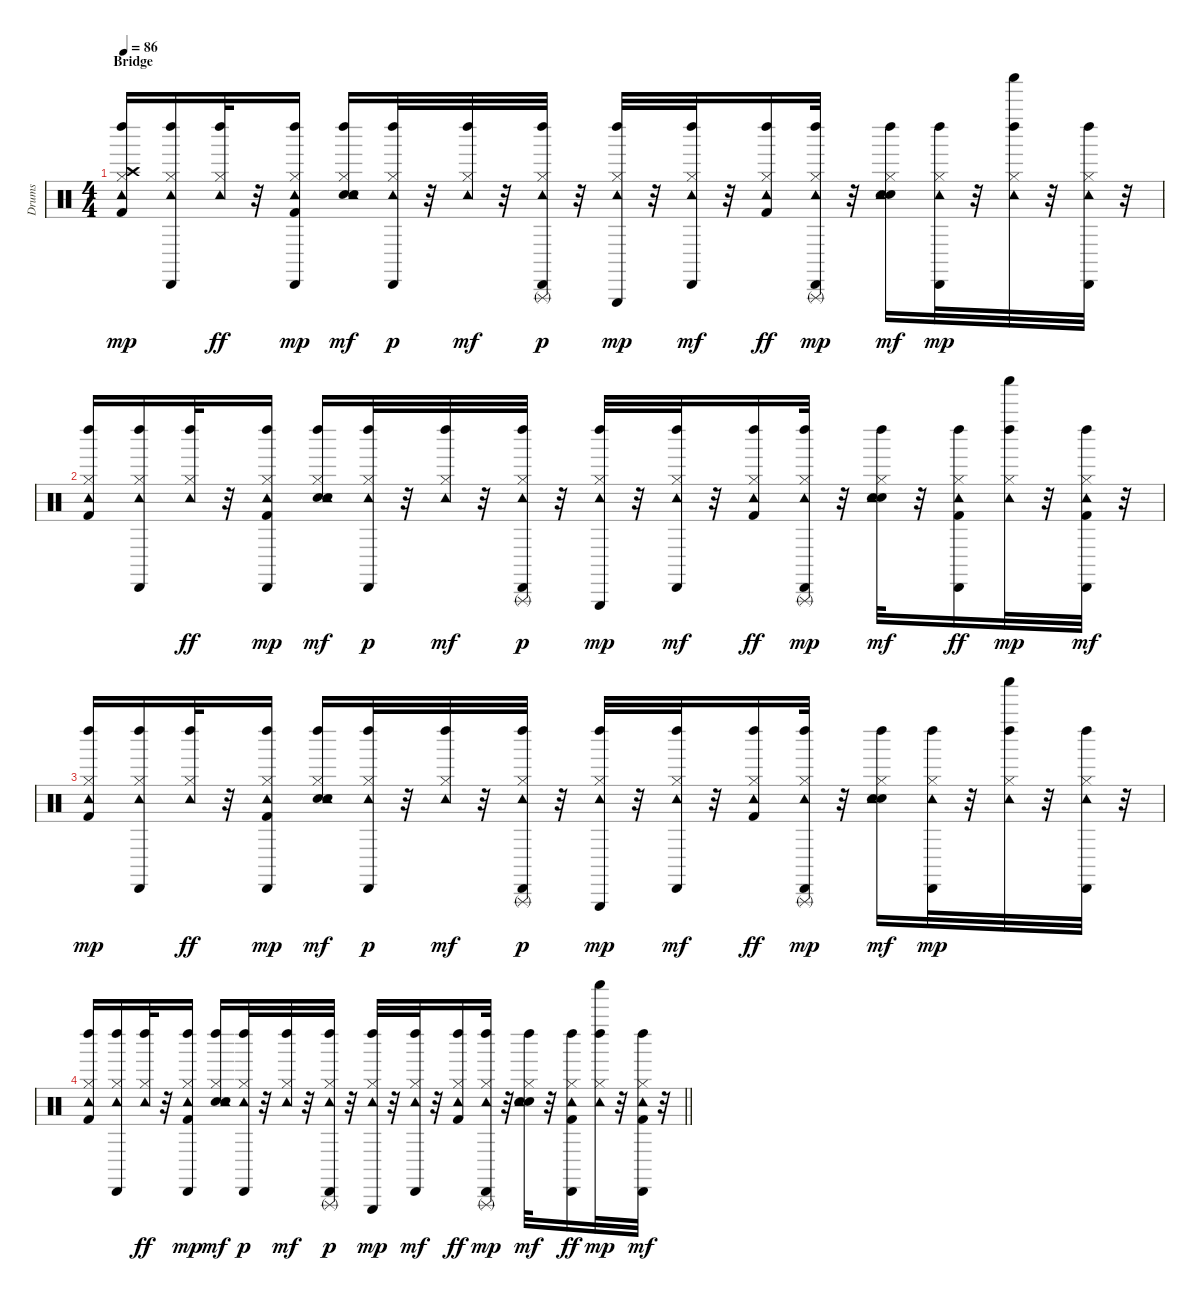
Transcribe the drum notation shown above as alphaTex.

\track ("Drums" "Drums") {instrument percussion}
\staff {score}
\articulation defaults
\ts (4 4)
\section ("" "Bridge")
\tempo 86
\clef neutral
\ks c
("Hi-Hat (closed)" "Crash high (hit)" "Tambourine (hit)" "Left Maraca (hit)" "Kick (hit) 2").16{dy mp} ("Hi-Hat (closed)" "Tambourine (hit)" "Cabasa (hit)" "Left Maraca (hit)").16 ("Hi-Hat (closed)" "Tambourine (hit)" "Left Maraca (hit)").32{dy ff} r.32 ("Hi-Hat (closed)" "Tambourine (hit)" "Cabasa (hit)" "Left Maraca (hit)" "Kick (hit) 2").16{dy mp} ("Hi-Hat (closed)" "Hand Clap (hit)" "Tambourine (hit)" "Left Maraca (hit)" "Electric Snare (hit)").16{dy mf} ("Hi-Hat (closed)" "Tambourine (hit)" "Cabasa (hit)" "Left Maraca (hit)").32{dy p} r.32 ("Hi-Hat (closed)" "Tambourine (hit)" "Left Maraca (hit)").32{dy mf} r.32 ("Hi-Hat (closed)" "Tambourine (hit)" "Cabasa (hit)" "Left Maraca (hit)" "Triangle (rnute)").32{dy p} r.32 ("Hi-Hat (closed)" "Tambourine (hit)" "Left Maraca (hit)" "Triangle (hit)").32{dy mp} r.32 ("Hi-Hat (closed)" "Tambourine (hit)" "Cabasa (hit)" "Left Maraca (hit)").32{dy mf} r.32 ("Hi-Hat (closed)" "Tambourine (hit)" "Left Maraca (hit)" "Kick (hit) 2").16{dy ff} ("Hi-Hat (closed)" "Tambourine (hit)" "Cabasa (hit)" "Left Maraca (hit)" "Triangle (rnute)").32{dy mp} r.32 ("Hi-Hat (closed)" "Hand Clap (hit)" "Tambourine (hit)" "Left Maraca (hit)" "Electric Snare (hit)").16{dy mf} ("Hi-Hat (closed)" "Tambourine (hit)" "Cabasa (hit)" "Left Maraca (hit)").32{dy mp} r.32 ("Hi-Hat (closed)" "Tambourine (hit)" "Left Maraca (hit)" "Shaker (hit)").32 r.32 ("Hi-Hat (closed)" "Tambourine (hit)" "Cabasa (hit)" "Left Maraca (hit)").32 r.32 |
("Hi-Hat (closed)" "Tambourine (hit)" "Left Maraca (hit)" "Kick (hit) 2").16 ("Hi-Hat (closed)" "Tambourine (hit)" "Cabasa (hit)" "Left Maraca (hit)").16 ("Hi-Hat (closed)" "Tambourine (hit)" "Left Maraca (hit)").32{dy ff} r.32 ("Hi-Hat (closed)" "Tambourine (hit)" "Cabasa (hit)" "Left Maraca (hit)" "Kick (hit) 2").16{dy mp} ("Hi-Hat (closed)" "Hand Clap (hit)" "Tambourine (hit)" "Left Maraca (hit)" "Electric Snare (hit)").16{dy mf} ("Hi-Hat (closed)" "Tambourine (hit)" "Cabasa (hit)" "Left Maraca (hit)").32{dy p} r.32 ("Hi-Hat (closed)" "Tambourine (hit)" "Left Maraca (hit)").32{dy mf} r.32 ("Hi-Hat (closed)" "Tambourine (hit)" "Cabasa (hit)" "Left Maraca (hit)" "Triangle (rnute)").32{dy p} r.32 ("Hi-Hat (closed)" "Tambourine (hit)" "Left Maraca (hit)" "Triangle (hit)").32{dy mp} r.32 ("Hi-Hat (closed)" "Tambourine (hit)" "Cabasa (hit)" "Left Maraca (hit)").32{dy mf} r.32 ("Hi-Hat (closed)" "Tambourine (hit)" "Left Maraca (hit)" "Kick (hit) 2").16{dy ff} ("Hi-Hat (closed)" "Tambourine (hit)" "Cabasa (hit)" "Left Maraca (hit)" "Triangle (rnute)").32{dy mp} r.32 ("Hi-Hat (closed)" "Hand Clap (hit)" "Tambourine (hit)" "Left Maraca (hit)" "Electric Snare (hit)").32{dy mf} r.32 ("Hi-Hat (closed)" "Tambourine (hit)" "Cabasa (hit)" "Left Maraca (hit)" "Kick (hit) 2").16{dy ff} ("Hi-Hat (closed)" "Tambourine (hit)" "Left Maraca (hit)" "Shaker (hit)").32{dy mp} r.32 ("Hi-Hat (closed)" "Tambourine (hit)" "Cabasa (hit)" "Left Maraca (hit)" "Kick (hit) 2").32{dy mf} r.32 |
("Hi-Hat (closed)" "Tambourine (hit)" "Left Maraca (hit)" "Kick (hit) 2").16{dy mp} ("Hi-Hat (closed)" "Tambourine (hit)" "Cabasa (hit)" "Left Maraca (hit)").16 ("Hi-Hat (closed)" "Tambourine (hit)" "Left Maraca (hit)").32{dy ff} r.32 ("Hi-Hat (closed)" "Tambourine (hit)" "Cabasa (hit)" "Left Maraca (hit)" "Kick (hit) 2").16{dy mp} ("Hi-Hat (closed)" "Hand Clap (hit)" "Tambourine (hit)" "Left Maraca (hit)" "Electric Snare (hit)").16{dy mf} ("Hi-Hat (closed)" "Tambourine (hit)" "Cabasa (hit)" "Left Maraca (hit)").32{dy p} r.32 ("Hi-Hat (closed)" "Tambourine (hit)" "Left Maraca (hit)").32{dy mf} r.32 ("Hi-Hat (closed)" "Tambourine (hit)" "Cabasa (hit)" "Left Maraca (hit)" "Triangle (rnute)").32{dy p} r.32 ("Hi-Hat (closed)" "Tambourine (hit)" "Left Maraca (hit)" "Triangle (hit)").32{dy mp} r.32 ("Hi-Hat (closed)" "Tambourine (hit)" "Cabasa (hit)" "Left Maraca (hit)").32{dy mf} r.32 ("Hi-Hat (closed)" "Tambourine (hit)" "Left Maraca (hit)" "Kick (hit) 2").16{dy ff} ("Hi-Hat (closed)" "Tambourine (hit)" "Cabasa (hit)" "Left Maraca (hit)" "Triangle (rnute)").32{dy mp} r.32 ("Hi-Hat (closed)" "Hand Clap (hit)" "Tambourine (hit)" "Left Maraca (hit)" "Electric Snare (hit)").16{dy mf} ("Hi-Hat (closed)" "Tambourine (hit)" "Cabasa (hit)" "Left Maraca (hit)").32{dy mp} r.32 ("Hi-Hat (closed)" "Tambourine (hit)" "Left Maraca (hit)" "Shaker (hit)").32 r.32 ("Hi-Hat (closed)" "Tambourine (hit)" "Cabasa (hit)" "Left Maraca (hit)").32 r.32 |
\barLineRight lightlight
("Hi-Hat (closed)" "Tambourine (hit)" "Left Maraca (hit)" "Kick (hit) 2").16 ("Hi-Hat (closed)" "Tambourine (hit)" "Cabasa (hit)" "Left Maraca (hit)").16 ("Hi-Hat (closed)" "Tambourine (hit)" "Left Maraca (hit)").32{dy ff} r.32 ("Hi-Hat (closed)" "Tambourine (hit)" "Cabasa (hit)" "Left Maraca (hit)" "Kick (hit) 2").16{dy mp} ("Hi-Hat (closed)" "Hand Clap (hit)" "Tambourine (hit)" "Left Maraca (hit)" "Electric Snare (hit)").16{dy mf} ("Hi-Hat (closed)" "Tambourine (hit)" "Cabasa (hit)" "Left Maraca (hit)").32{dy p} r.32 ("Hi-Hat (closed)" "Tambourine (hit)" "Left Maraca (hit)").32{dy mf} r.32 ("Hi-Hat (closed)" "Tambourine (hit)" "Cabasa (hit)" "Left Maraca (hit)" "Triangle (rnute)").32{dy p} r.32 ("Hi-Hat (closed)" "Tambourine (hit)" "Left Maraca (hit)" "Triangle (hit)").32{dy mp} r.32 ("Hi-Hat (closed)" "Tambourine (hit)" "Cabasa (hit)" "Left Maraca (hit)").32{dy mf} r.32 ("Hi-Hat (closed)" "Tambourine (hit)" "Left Maraca (hit)" "Kick (hit) 2").16{dy ff} ("Hi-Hat (closed)" "Tambourine (hit)" "Cabasa (hit)" "Left Maraca (hit)" "Triangle (rnute)").32{dy mp} r.32 ("Hi-Hat (closed)" "Hand Clap (hit)" "Tambourine (hit)" "Left Maraca (hit)" "Electric Snare (hit)").32{dy mf} r.32 ("Hi-Hat (closed)" "Tambourine (hit)" "Cabasa (hit)" "Left Maraca (hit)" "Kick (hit) 2").16{dy ff} ("Hi-Hat (closed)" "Tambourine (hit)" "Left Maraca (hit)" "Shaker (hit)").32{dy mp} r.32 ("Hi-Hat (closed)" "Tambourine (hit)" "Cabasa (hit)" "Left Maraca (hit)" "Kick (hit) 2").32{dy mf} r.32
